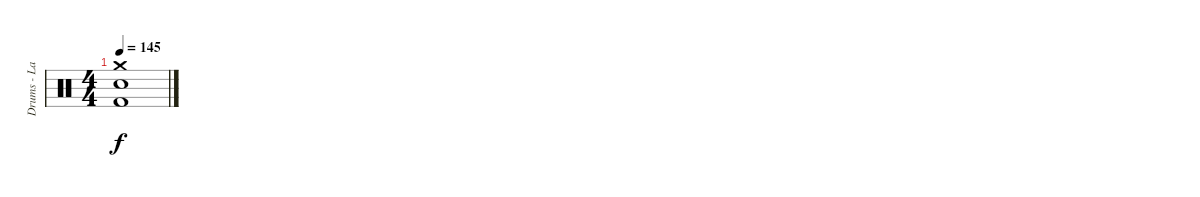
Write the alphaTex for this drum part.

\track ("Drums - Larry Gorman" "Drums - La") {instrument percussion}
\staff {score}
\articulation defaults
\ts (4 4)
\tempo 145
\clef neutral
\ks c
("Crash medium (hit)" "Electric Snare (hit)" "Kick (hit) 2").1{dy f}
